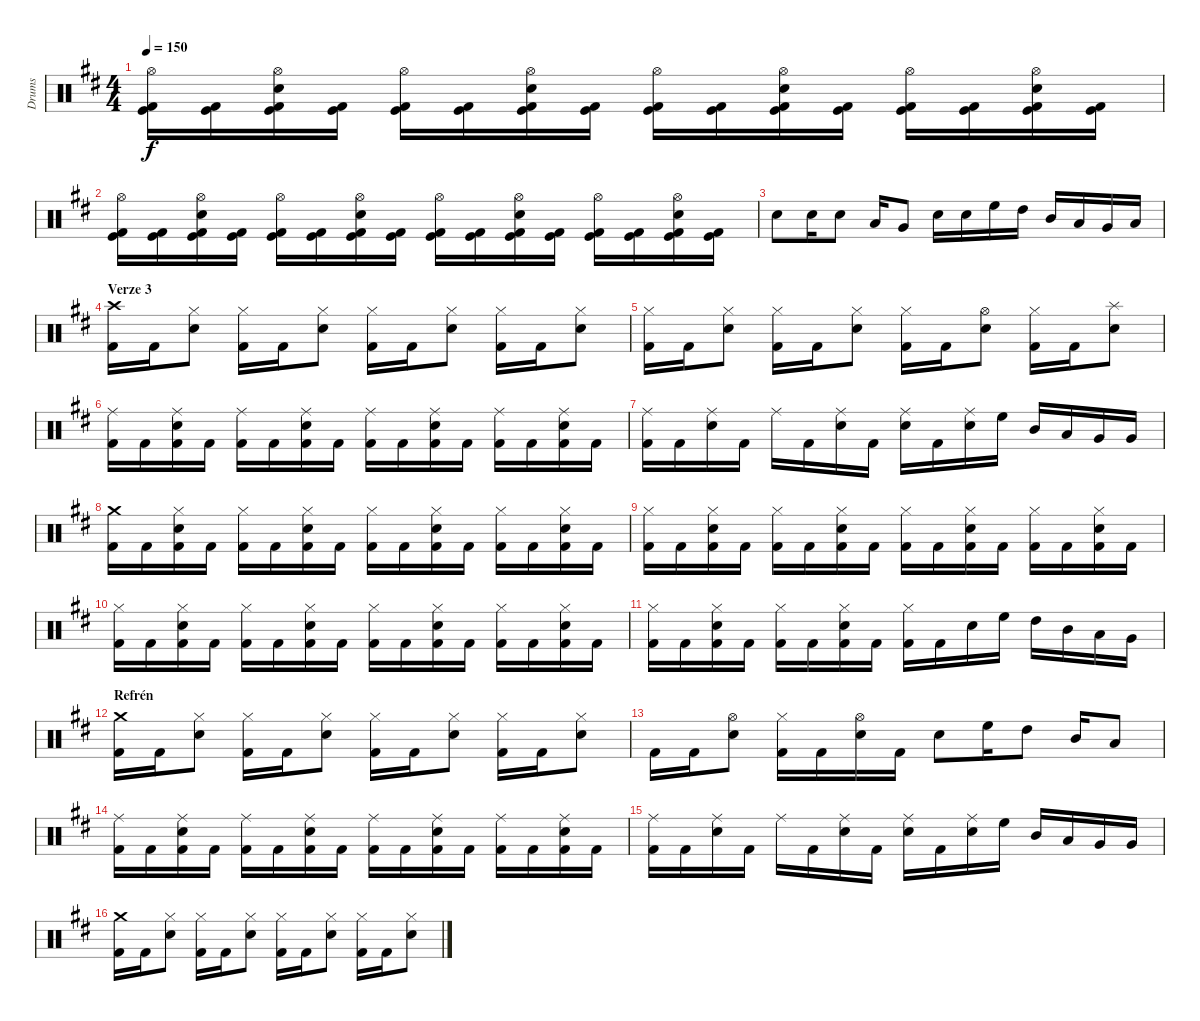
\track ("Drums" "Drums") {instrument percussion}
\staff {score}
\articulation defaults
\ts (4 4)
\tempo 150
\clef neutral
\ks d
("Hi-Hat (open)" "Kick (hit) 2" "Kick (hit)").16{dy f} ("Kick (hit) 2" "Kick (hit)").16 ("Hi-Hat (open)" "Snare (hit) 2" "Kick (hit) 2" "Kick (hit)").16 ("Kick (hit) 2" "Kick (hit)").16 ("Hi-Hat (open)" "Kick (hit) 2" "Kick (hit)").16 ("Kick (hit) 2" "Kick (hit)").16 ("Hi-Hat (open)" "Snare (hit) 2" "Kick (hit) 2" "Kick (hit)").16 ("Kick (hit) 2" "Kick (hit)").16 ("Hi-Hat (open)" "Kick (hit) 2" "Kick (hit)").16 ("Kick (hit) 2" "Kick (hit)").16 ("Hi-Hat (open)" "Snare (hit) 2" "Kick (hit) 2" "Kick (hit)").16 ("Kick (hit) 2" "Kick (hit)").16 ("Hi-Hat (open)" "Kick (hit) 2" "Kick (hit)").16 ("Kick (hit) 2" "Kick (hit)").16 ("Hi-Hat (open)" "Snare (hit) 2" "Kick (hit) 2" "Kick (hit)").16 ("Kick (hit) 2" "Kick (hit)").16 |
("Hi-Hat (open)" "Kick (hit) 2" "Kick (hit)").16 ("Kick (hit) 2" "Kick (hit)").16 ("Hi-Hat (open)" "Snare (hit) 2" "Kick (hit) 2" "Kick (hit)").16 ("Kick (hit) 2" "Kick (hit)").16 ("Hi-Hat (open)" "Kick (hit) 2" "Kick (hit)").16 ("Kick (hit) 2" "Kick (hit)").16 ("Hi-Hat (open)" "Snare (hit) 2" "Kick (hit) 2" "Kick (hit)").16 ("Kick (hit) 2" "Kick (hit)").16 ("Hi-Hat (open)" "Kick (hit) 2" "Kick (hit)").16 ("Kick (hit) 2" "Kick (hit)").16 ("Hi-Hat (open)" "Snare (hit) 2" "Kick (hit) 2" "Kick (hit)").16 ("Kick (hit) 2" "Kick (hit)").16 ("Hi-Hat (open)" "Kick (hit) 2" "Kick (hit)").16 ("Kick (hit) 2" "Kick (hit)").16 ("Hi-Hat (open)" "Snare (hit) 2" "Kick (hit) 2" "Kick (hit)").16 ("Kick (hit) 2" "Kick (hit)").16 |
"Snare (hit) 2".8 "Snare (hit) 2".16 "Snare (hit) 2".8 "Low Tom (hit)".16 "Very Low Tom (hit)".8 "Snare (hit) 2".16 "Snare (hit) 2".16 "High Floor Tom (hit)".16 "High Tom (hit)".16 "Mid Tom (hit)".16 "Low Tom (hit)".16 "Very Low Tom (hit)".16 "Low Floor Tom (hit)".16 |
\section ("" "Verze 3")
("Crash high (hit)" "Kick (hit) 2").16 "Kick (hit) 2".16 ("Hi-Hat (closed)" "Snare (hit) 2").8 ("Hi-Hat (closed)" "Kick (hit) 2").16 "Kick (hit) 2".16 ("Hi-Hat (closed)" "Snare (hit) 2").8 ("Hi-Hat (closed)" "Kick (hit) 2").16 "Kick (hit) 2".16 ("Hi-Hat (closed)" "Snare (hit) 2").8 ("Hi-Hat (closed)" "Kick (hit) 2").16 "Kick (hit) 2".16 ("Hi-Hat (closed)" "Snare (hit) 2").8 |
("Hi-Hat (closed)" "Kick (hit) 2").16 "Kick (hit) 2".16 ("Hi-Hat (closed)" "Snare (hit) 2").8 ("Hi-Hat (closed)" "Kick (hit) 2").16 "Kick (hit) 2".16 ("Hi-Hat (closed)" "Snare (hit) 2").8 ("Hi-Hat (closed)" "Kick (hit) 2").16 "Kick (hit) 2".16 ("Hi-Hat (open)" "Snare (hit) 2").8 ("Hi-Hat (closed)" "Kick (hit) 2").16 "Kick (hit) 2".16 ("Splash (hit)" "Snare (hit) 2").8 |
("Ride (middle)" "Kick (hit) 2").16 "Kick (hit) 2".16 ("Ride (middle)" "Snare (hit) 2" "Kick (hit) 2").16 "Kick (hit) 2".16 ("Ride (middle)" "Kick (hit) 2").16 "Kick (hit) 2".16 ("Ride (middle)" "Snare (hit) 2" "Kick (hit) 2").16 "Kick (hit) 2".16 ("Ride (middle)" "Kick (hit) 2").16 "Kick (hit) 2".16 ("Ride (middle)" "Snare (hit) 2" "Kick (hit) 2").16 "Kick (hit) 2".16 ("Ride (middle)" "Kick (hit) 2").16 "Kick (hit) 2".16 ("Ride (middle)" "Snare (hit) 2" "Kick (hit) 2").16 "Kick (hit) 2".16 |
("Ride (middle)" "Kick (hit) 2").16 "Kick (hit) 2".16 ("Ride (middle)" "Snare (hit) 2").16 "Kick (hit) 2".16 "Ride (middle)".16 "Kick (hit) 2".16 ("Ride (middle)" "Snare (hit) 2").16 "Kick (hit) 2".16 ("Ride (middle)" "Snare (hit) 2").16 "Kick (hit) 2".16 ("Ride (middle)" "Snare (hit) 2").16 "High Floor Tom (hit)".16 "Mid Tom (hit)".16 "Low Tom (hit)".16 "Very Low Tom (hit)".16 "Very Low Tom (hit)".16 |
("Crash medium (hit)" "Kick (hit) 2").16 "Kick (hit) 2".16 ("Hi-Hat (closed)" "Snare (hit) 2" "Kick (hit) 2").16 "Kick (hit) 2".16 ("Hi-Hat (closed)" "Kick (hit) 2").16 "Kick (hit) 2".16 ("Hi-Hat (closed)" "Snare (hit) 2" "Kick (hit) 2").16 "Kick (hit) 2".16 ("Hi-Hat (closed)" "Kick (hit) 2").16 "Kick (hit) 2".16 ("Hi-Hat (closed)" "Snare (hit) 2" "Kick (hit) 2").16 "Kick (hit) 2".16 ("Hi-Hat (closed)" "Kick (hit) 2").16 "Kick (hit) 2".16 ("Hi-Hat (closed)" "Snare (hit) 2" "Kick (hit) 2").16 "Kick (hit) 2".16 |
("Hi-Hat (closed)" "Kick (hit) 2").16 "Kick (hit) 2".16 ("Hi-Hat (closed)" "Snare (hit) 2" "Kick (hit) 2").16 "Kick (hit) 2".16 ("Hi-Hat (closed)" "Kick (hit) 2").16 "Kick (hit) 2".16 ("Hi-Hat (closed)" "Snare (hit) 2" "Kick (hit) 2").16 "Kick (hit) 2".16 ("Hi-Hat (closed)" "Kick (hit) 2").16 "Kick (hit) 2".16 ("Hi-Hat (closed)" "Snare (hit) 2" "Kick (hit) 2").16 "Kick (hit) 2".16 ("Hi-Hat (closed)" "Kick (hit) 2").16 "Kick (hit) 2".16 ("Hi-Hat (closed)" "Snare (hit) 2" "Kick (hit) 2").16 "Kick (hit) 2".16 |
("Hi-Hat (closed)" "Kick (hit) 2").16 "Kick (hit) 2".16 ("Hi-Hat (closed)" "Snare (hit) 2" "Kick (hit) 2").16 "Kick (hit) 2".16 ("Hi-Hat (closed)" "Kick (hit) 2").16 "Kick (hit) 2".16 ("Hi-Hat (closed)" "Snare (hit) 2" "Kick (hit) 2").16 "Kick (hit) 2".16 ("Hi-Hat (closed)" "Kick (hit) 2").16 "Kick (hit) 2".16 ("Hi-Hat (closed)" "Snare (hit) 2" "Kick (hit) 2").16 "Kick (hit) 2".16 ("Hi-Hat (closed)" "Kick (hit) 2").16 "Kick (hit) 2".16 ("Hi-Hat (closed)" "Snare (hit) 2" "Kick (hit) 2").16 "Kick (hit) 2".16 |
("Hi-Hat (closed)" "Kick (hit) 2").16 "Kick (hit) 2".16 ("Hi-Hat (closed)" "Snare (hit) 2" "Kick (hit) 2").16 "Kick (hit) 2".16 ("Hi-Hat (closed)" "Kick (hit) 2").16 "Kick (hit) 2".16 ("Hi-Hat (closed)" "Snare (hit) 2" "Kick (hit) 2").16 "Kick (hit) 2".16 ("Hi-Hat (closed)" "Kick (hit) 2").16 "Kick (hit) 2".16 "Snare (hit) 2".16 "High Floor Tom (hit)".16 "High Tom (hit)".16 "Mid Tom (hit)".16 "Low Tom (hit)".16 "Very Low Tom (hit)".16 |
\section ("" "Refrén")
("Crash medium (hit)" "Kick (hit) 2").16 "Kick (hit) 2".16 ("Hi-Hat (closed)" "Snare (hit) 2").8 ("Hi-Hat (closed)" "Kick (hit) 2").16 "Kick (hit) 2".16 ("Hi-Hat (closed)" "Snare (hit) 2").8 ("Hi-Hat (closed)" "Kick (hit) 2").16 "Kick (hit) 2".16 ("Hi-Hat (closed)" "Snare (hit) 2").8 ("Hi-Hat (closed)" "Kick (hit) 2").16 "Kick (hit) 2".16 ("Hi-Hat (closed)" "Snare (hit) 2").8 |
"Kick (hit) 2".16 "Kick (hit) 2".16 ("Hi-Hat (open)" "Snare (hit) 2").8 ("Hi-Hat (closed)" "Kick (hit) 2").16 "Kick (hit) 2".16 ("Hi-Hat (open)" "Snare (hit) 2").16 "Kick (hit) 2".16 "Snare (hit) 2".8 "High Floor Tom (hit)".16 "High Tom (hit)".8 "Mid Tom (hit)".16 "Low Tom (hit)".8 |
("Ride (middle)" "Kick (hit) 2").16 "Kick (hit) 2".16 ("Ride (middle)" "Snare (hit) 2" "Kick (hit) 2").16 "Kick (hit) 2".16 ("Ride (middle)" "Kick (hit) 2").16 "Kick (hit) 2".16 ("Ride (middle)" "Snare (hit) 2" "Kick (hit) 2").16 "Kick (hit) 2".16 ("Ride (middle)" "Kick (hit) 2").16 "Kick (hit) 2".16 ("Ride (middle)" "Snare (hit) 2" "Kick (hit) 2").16 "Kick (hit) 2".16 ("Ride (middle)" "Kick (hit) 2").16 "Kick (hit) 2".16 ("Ride (middle)" "Snare (hit) 2" "Kick (hit) 2").16 "Kick (hit) 2".16 |
("Ride (middle)" "Kick (hit) 2").16 "Kick (hit) 2".16 ("Ride (middle)" "Snare (hit) 2").16 "Kick (hit) 2".16 "Ride (middle)".16 "Kick (hit) 2".16 ("Ride (middle)" "Snare (hit) 2").16 "Kick (hit) 2".16 ("Ride (middle)" "Snare (hit) 2").16 "Kick (hit) 2".16 ("Ride (middle)" "Snare (hit) 2").16 "High Floor Tom (hit)".16 "Mid Tom (hit)".16 "Low Tom (hit)".16 "Very Low Tom (hit)".16 "Very Low Tom (hit)".16 |
("Crash medium (hit)" "Kick (hit) 2").16 "Kick (hit) 2".16 ("Hi-Hat (closed)" "Snare (hit) 2").8 ("Hi-Hat (closed)" "Kick (hit) 2").16 "Kick (hit) 2".16 ("Hi-Hat (closed)" "Snare (hit) 2").8 ("Hi-Hat (closed)" "Kick (hit) 2").16 "Kick (hit) 2".16 ("Hi-Hat (closed)" "Snare (hit) 2").8 ("Hi-Hat (closed)" "Kick (hit) 2").16 "Kick (hit) 2".16 ("Hi-Hat (closed)" "Snare (hit) 2").8
